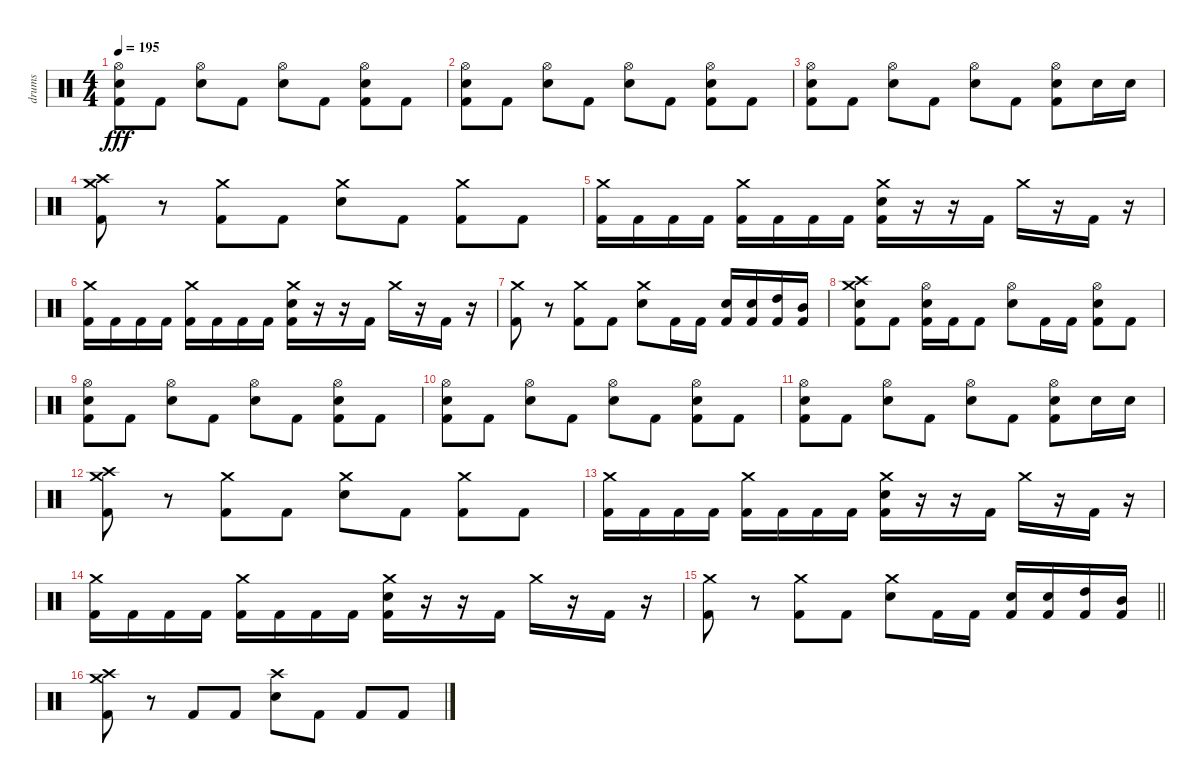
\track ("drums" "drums") {instrument percussion}
\staff {score}
\articulation defaults
\ts (4 4)
\tempo 195
\clef neutral
\ks c
("Hi-Hat (open)" "Electric Snare (hit)" "Kick (hit) 2").8{dy fff} "Kick (hit) 2".8 ("Hi-Hat (open)" "Electric Snare (hit)").8 "Kick (hit) 2".8 ("Hi-Hat (open)" "Electric Snare (hit)").8 "Kick (hit) 2".8 ("Hi-Hat (open)" "Electric Snare (hit)" "Kick (hit) 2").8 "Kick (hit) 2".8 |
("Hi-Hat (open)" "Electric Snare (hit)" "Kick (hit) 2").8 "Kick (hit) 2".8 ("Hi-Hat (open)" "Electric Snare (hit)").8 "Kick (hit) 2".8 ("Hi-Hat (open)" "Electric Snare (hit)").8 "Kick (hit) 2".8 ("Hi-Hat (open)" "Electric Snare (hit)" "Kick (hit) 2").8 "Kick (hit) 2".8 |
("Hi-Hat (open)" "Electric Snare (hit)" "Kick (hit) 2").8 "Kick (hit) 2".8 ("Hi-Hat (open)" "Electric Snare (hit)").8 "Kick (hit) 2".8 ("Hi-Hat (open)" "Electric Snare (hit)").8 "Kick (hit) 2".8 ("Hi-Hat (open)" "Electric Snare (hit)" "Kick (hit) 2").8 "Electric Snare (hit)".16 "Electric Snare (hit)".16 |
("Crash medium (hit)" "Crash high (hit)" "Kick (hit) 2").8 r.8 ("Crash medium (hit)" "Kick (hit) 2").8 "Kick (hit) 2".8 ("Crash medium (hit)" "Electric Snare (hit)").8 "Kick (hit) 2".8 ("Crash medium (hit)" "Kick (hit) 2").8 "Kick (hit) 2".8 |
("Crash medium (hit)" "Kick (hit) 2").16 "Kick (hit) 2".16 "Kick (hit) 2".16 "Kick (hit) 2".16 ("Crash medium (hit)" "Kick (hit) 2").16 "Kick (hit) 2".16 "Kick (hit) 2".16 "Kick (hit) 2".16 ("Crash medium (hit)" "Electric Snare (hit)" "Kick (hit) 2").16 r.16 r.16 "Kick (hit) 2".16 "Crash medium (hit)".16 r.16 "Kick (hit) 2".16 r.16 |
("Crash medium (hit)" "Kick (hit) 2").16 "Kick (hit) 2".16 "Kick (hit) 2".16 "Kick (hit) 2".16 ("Crash medium (hit)" "Kick (hit) 2").16 "Kick (hit) 2".16 "Kick (hit) 2".16 "Kick (hit) 2".16 ("Crash medium (hit)" "Electric Snare (hit)" "Kick (hit) 2").16 r.16 r.16 "Kick (hit) 2".16 "Crash medium (hit)".16 r.16 "Kick (hit) 2".16 r.16 |
("Crash medium (hit)" "Kick (hit) 2").8 r.8 ("Crash medium (hit)" "Kick (hit) 2").8 "Kick (hit) 2".8 ("Crash medium (hit)" "Electric Snare (hit)").8 "Kick (hit) 2".16 "Kick (hit) 2".16 ("Electric Snare (hit)" "Kick (hit) 2").16 ("Electric Snare (hit)" "Kick (hit) 2").16 ("High Tom (hit)" "Kick (hit) 2").16 ("Mid Tom (hit)" "Kick (hit) 2").16 |
("Crash high (hit)" "Crash medium (hit)" "Electric Snare (hit)" "Kick (hit) 2").8 "Kick (hit) 2".8 ("Hi-Hat (open)" "Electric Snare (hit)" "Kick (hit) 2").16 "Kick (hit) 2".16 "Kick (hit) 2".8 ("Hi-Hat (open)" "Electric Snare (hit)").8 "Kick (hit) 2".16 "Kick (hit) 2".16 ("Hi-Hat (open)" "Electric Snare (hit)" "Kick (hit) 2").8 "Kick (hit) 2".8 |
("Hi-Hat (open)" "Electric Snare (hit)" "Kick (hit) 2").8 "Kick (hit) 2".8 ("Hi-Hat (open)" "Electric Snare (hit)").8 "Kick (hit) 2".8 ("Hi-Hat (open)" "Electric Snare (hit)").8 "Kick (hit) 2".8 ("Hi-Hat (open)" "Electric Snare (hit)" "Kick (hit) 2").8 "Kick (hit) 2".8 |
("Hi-Hat (open)" "Electric Snare (hit)" "Kick (hit) 2").8 "Kick (hit) 2".8 ("Hi-Hat (open)" "Electric Snare (hit)").8 "Kick (hit) 2".8 ("Hi-Hat (open)" "Electric Snare (hit)").8 "Kick (hit) 2".8 ("Hi-Hat (open)" "Electric Snare (hit)" "Kick (hit) 2").8 "Kick (hit) 2".8 |
("Hi-Hat (open)" "Electric Snare (hit)" "Kick (hit) 2").8 "Kick (hit) 2".8 ("Hi-Hat (open)" "Electric Snare (hit)").8 "Kick (hit) 2".8 ("Hi-Hat (open)" "Electric Snare (hit)").8 "Kick (hit) 2".8 ("Hi-Hat (open)" "Electric Snare (hit)" "Kick (hit) 2").8 "Electric Snare (hit)".16 "Electric Snare (hit)".16 |
("Crash medium (hit)" "Crash high (hit)" "Kick (hit) 2").8 r.8 ("Crash medium (hit)" "Kick (hit) 2").8 "Kick (hit) 2".8 ("Crash medium (hit)" "Electric Snare (hit)").8 "Kick (hit) 2".8 ("Crash medium (hit)" "Kick (hit) 2").8 "Kick (hit) 2".8 |
("Crash medium (hit)" "Kick (hit) 2").16 "Kick (hit) 2".16 "Kick (hit) 2".16 "Kick (hit) 2".16 ("Crash medium (hit)" "Kick (hit) 2").16 "Kick (hit) 2".16 "Kick (hit) 2".16 "Kick (hit) 2".16 ("Crash medium (hit)" "Electric Snare (hit)" "Kick (hit) 2").16 r.16 r.16 "Kick (hit) 2".16 "Crash medium (hit)".16 r.16 "Kick (hit) 2".16 r.16 |
("Crash medium (hit)" "Kick (hit) 2").16 "Kick (hit) 2".16 "Kick (hit) 2".16 "Kick (hit) 2".16 ("Crash medium (hit)" "Kick (hit) 2").16 "Kick (hit) 2".16 "Kick (hit) 2".16 "Kick (hit) 2".16 ("Crash medium (hit)" "Electric Snare (hit)" "Kick (hit) 2").16 r.16 r.16 "Kick (hit) 2".16 "Crash medium (hit)".16 r.16 "Kick (hit) 2".16 r.16 |
\barLineRight lightlight
("Crash medium (hit)" "Kick (hit) 2").8 r.8 ("Crash medium (hit)" "Kick (hit) 2").8 "Kick (hit) 2".8 ("Crash medium (hit)" "Electric Snare (hit)").8 "Kick (hit) 2".16 "Kick (hit) 2".16 ("Electric Snare (hit)" "Kick (hit) 2").16 ("Electric Snare (hit)" "Kick (hit) 2").16 ("High Tom (hit)" "Kick (hit) 2").16 ("Mid Tom (hit)" "Kick (hit) 2").16 |
\section ("" "")
("Crash medium (hit)" "Crash high (hit)" "Kick (hit) 2").8 r.8 "Kick (hit) 2".8 "Kick (hit) 2".8 ("Crash high (hit)" "Electric Snare (hit)").8 "Kick (hit) 2".8 "Kick (hit) 2".8 "Kick (hit) 2".8
